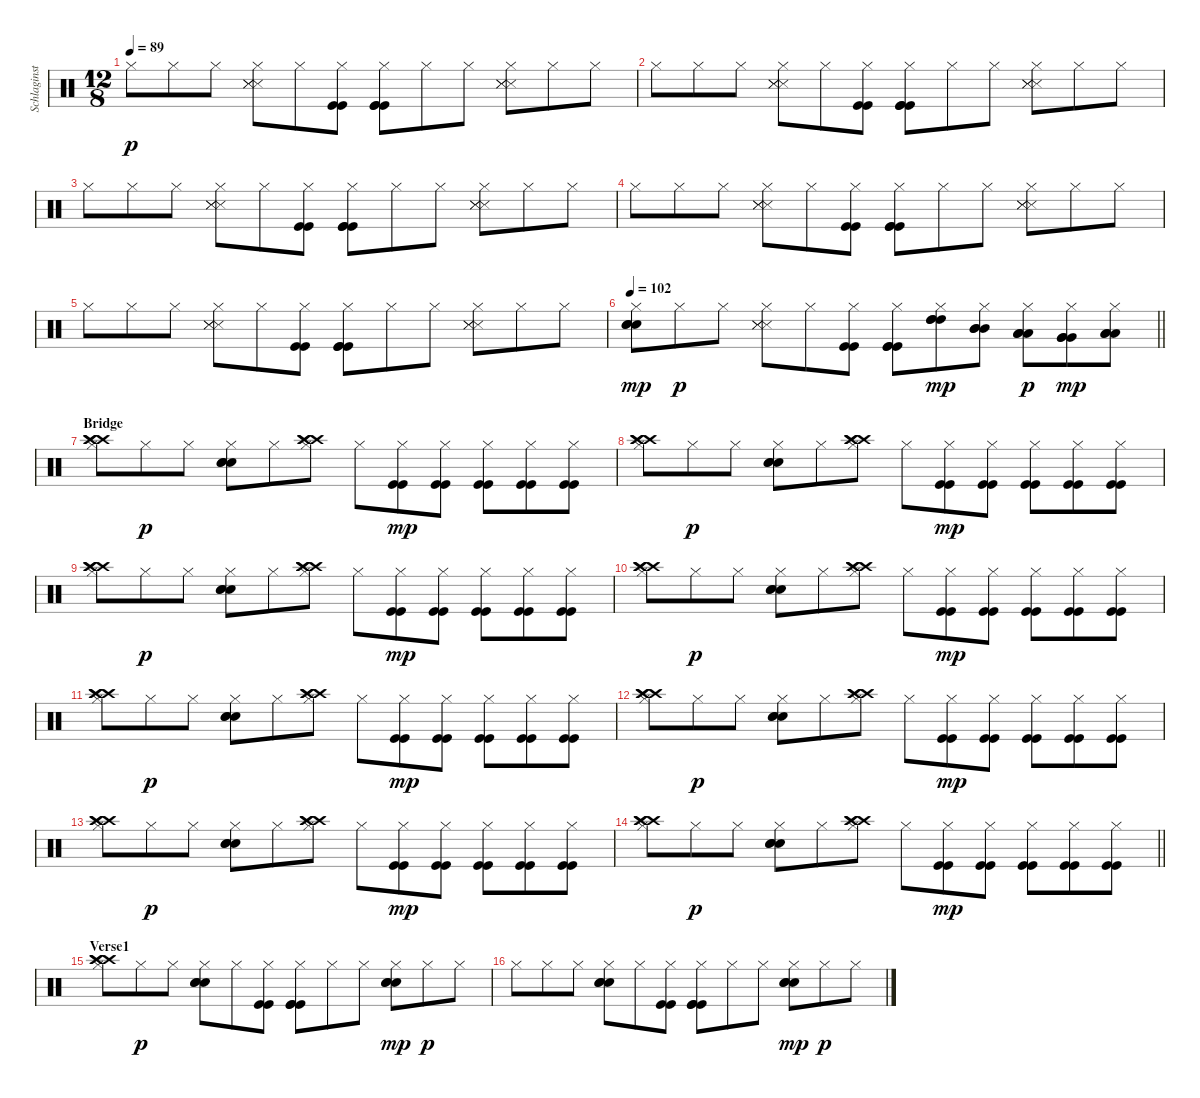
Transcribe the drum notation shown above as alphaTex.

\track ("Schlaginstrumente - Auswahl" "Schlaginst") {instrument percussion}
\staff {score}
\articulation defaults
\ts (12 8)
\tempo 89
\clef neutral
\ks c "Hi-Hat (closed)".8{dy p} "Hi-Hat (closed)".8 "Hi-Hat (closed)".8
("Hi-Hat (closed)" "Snare (side stick) 3" "Snare (side stick) 3" "Snare (side stick) 3").8 "Hi-Hat (closed)".8 ("Hi-Hat (closed)" "Kick (hit)" "Kick (hit)").8 ("Hi-Hat (closed)" "Kick (hit)" "Kick (hit)" "Kick (hit)").8 "Hi-Hat (closed)".8 "Hi-Hat (closed)".8 ("Hi-Hat (closed)" "Snare (side stick) 3" "Snare (side stick) 3" "Snare (side stick) 3").8 "Hi-Hat (closed)".8 "Hi-Hat (closed)".8 |
"Hi-Hat (closed)".8 "Hi-Hat (closed)".8 "Hi-Hat (closed)".8 ("Hi-Hat (closed)" "Snare (side stick) 3" "Snare (side stick) 3" "Snare (side stick) 3").8 "Hi-Hat (closed)".8 ("Hi-Hat (closed)" "Kick (hit)" "Kick (hit)").8 ("Hi-Hat (closed)" "Kick (hit)" "Kick (hit)" "Kick (hit)").8 "Hi-Hat (closed)".8 "Hi-Hat (closed)".8 ("Hi-Hat (closed)" "Snare (side stick) 3" "Snare (side stick) 3" "Snare (side stick) 3").8 "Hi-Hat (closed)".8 "Hi-Hat (closed)".8 |
"Hi-Hat (closed)".8 "Hi-Hat (closed)".8 "Hi-Hat (closed)".8 ("Hi-Hat (closed)" "Snare (side stick) 3" "Snare (side stick) 3" "Snare (side stick) 3").8 "Hi-Hat (closed)".8 ("Hi-Hat (closed)" "Kick (hit)" "Kick (hit)").8 ("Hi-Hat (closed)" "Kick (hit)" "Kick (hit)" "Kick (hit)").8 "Hi-Hat (closed)".8 "Hi-Hat (closed)".8 ("Hi-Hat (closed)" "Snare (side stick) 3" "Snare (side stick) 3" "Snare (side stick) 3").8 "Hi-Hat (closed)".8 "Hi-Hat (closed)".8 |
"Hi-Hat (closed)".8 "Hi-Hat (closed)".8 "Hi-Hat (closed)".8 ("Hi-Hat (closed)" "Snare (side stick) 3" "Snare (side stick) 3" "Snare (side stick) 3").8 "Hi-Hat (closed)".8 ("Hi-Hat (closed)" "Kick (hit)" "Kick (hit)").8 ("Hi-Hat (closed)" "Kick (hit)" "Kick (hit)" "Kick (hit)").8 "Hi-Hat (closed)".8 "Hi-Hat (closed)".8 ("Hi-Hat (closed)" "Snare (side stick) 3" "Snare (side stick) 3" "Snare (side stick) 3").8 "Hi-Hat (closed)".8 "Hi-Hat (closed)".8 |
"Hi-Hat (closed)".8{volume 13} "Hi-Hat (closed)".8 "Hi-Hat (closed)".8 ("Hi-Hat (closed)" "Snare (side stick) 3" "Snare (side stick) 3" "Snare (side stick) 3").8 "Hi-Hat (closed)".8 ("Hi-Hat (closed)" "Kick (hit)" "Kick (hit)").8 ("Hi-Hat (closed)" "Kick (hit)" "Kick (hit)" "Kick (hit)").8 "Hi-Hat (closed)".8 "Hi-Hat (closed)".8 ("Hi-Hat (closed)" "Snare (side stick) 3" "Snare (side stick) 3" "Snare (side stick) 3").8 "Hi-Hat (closed)".8 "Hi-Hat (closed)".8 |
\tempo 102
\barLineRight lightlight
("Hi-Hat (closed)" "Snare (hit) 2" "Snare (hit) 2" "Snare (hit) 2").8{dy mp volume 15} "Hi-Hat (closed)".8{dy p} "Hi-Hat (closed)".8 ("Hi-Hat (closed)" "Snare (side stick) 3" "Snare (side stick) 3" "Snare (side stick) 3").8 "Hi-Hat (closed)".8 ("Hi-Hat (closed)" "Kick (hit)" "Kick (hit)").8 ("Hi-Hat (closed)" "Kick (hit)" "Kick (hit)" "Kick (hit)").8 ("Hi-Hat (closed)" "High Tom (hit)" "High Tom (hit)" "High Tom (hit)").8{dy mp} ("Hi-Hat (closed)" "Mid Tom (hit)" "Mid Tom (hit)" "Mid Tom (hit)").8 ("Hi-Hat (closed)" "Low Tom (hit)" "Low Tom (hit)" "Low Tom (hit)").8{dy p} ("Hi-Hat (closed)" "Very Low Tom (hit)" "Very Low Tom (hit)" "Very Low Tom (hit)").8{dy mp} ("Hi-Hat (closed)" "Low Floor Tom (hit)" "Low Floor Tom (hit)" "Low Floor Tom (hit)").8 |
\section ("" "Bridge")
("Hi-Hat (closed)" "Crash high (hit)" "Crash high (hit)" "Crash high (hit)").8 "Hi-Hat (closed)".8{dy p} "Hi-Hat (closed)".8 ("Hi-Hat (closed)" "Snare (hit) 2" "Snare (hit) 2" "Metronome (bell)").8 "Hi-Hat (closed)".8 ("Hi-Hat (closed)" "Crash high (hit)" "Crash high (hit)" "Crash high (hit)").8 "Hi-Hat (closed)".8 ("Hi-Hat (closed)" "Kick (hit)" "Kick (hit)").8{dy mp} ("Hi-Hat (closed)" "Kick (hit)" "Kick (hit)").8 ("Hi-Hat (closed)" "Kick (hit)" "Kick (hit)").8 ("Hi-Hat (closed)" "Kick (hit)" "Kick (hit)").8 ("Hi-Hat (closed)" "Kick (hit)" "Kick (hit)").8 |
("Hi-Hat (closed)" "Crash high (hit)" "Crash high (hit)" "Crash high (hit)").8 "Hi-Hat (closed)".8{dy p} "Hi-Hat (closed)".8 ("Hi-Hat (closed)" "Snare (hit) 2" "Snare (hit) 2" "Metronome (bell)").8 "Hi-Hat (closed)".8 ("Hi-Hat (closed)" "Crash high (hit)" "Crash high (hit)" "Crash high (hit)").8 "Hi-Hat (closed)".8 ("Hi-Hat (closed)" "Kick (hit)" "Kick (hit)").8{dy mp} ("Hi-Hat (closed)" "Kick (hit)" "Kick (hit)").8 ("Hi-Hat (closed)" "Kick (hit)" "Kick (hit)").8 ("Hi-Hat (closed)" "Kick (hit)" "Kick (hit)").8 ("Hi-Hat (closed)" "Kick (hit)" "Kick (hit)").8 |
("Hi-Hat (closed)" "Crash high (hit)" "Crash high (hit)" "Crash high (hit)").8 "Hi-Hat (closed)".8{dy p} "Hi-Hat (closed)".8 ("Hi-Hat (closed)" "Snare (hit) 2" "Snare (hit) 2" "Metronome (bell)").8 "Hi-Hat (closed)".8 ("Hi-Hat (closed)" "Crash high (hit)" "Crash high (hit)" "Crash high (hit)").8 "Hi-Hat (closed)".8 ("Hi-Hat (closed)" "Kick (hit)" "Kick (hit)").8{dy mp} ("Hi-Hat (closed)" "Kick (hit)" "Kick (hit)").8 ("Hi-Hat (closed)" "Kick (hit)" "Kick (hit)").8 ("Hi-Hat (closed)" "Kick (hit)" "Kick (hit)").8 ("Hi-Hat (closed)" "Kick (hit)" "Kick (hit)").8 |
("Hi-Hat (closed)" "Crash high (hit)" "Crash high (hit)" "Crash high (hit)").8 "Hi-Hat (closed)".8{dy p} "Hi-Hat (closed)".8 ("Hi-Hat (closed)" "Snare (hit) 2" "Snare (hit) 2" "Metronome (bell)").8 "Hi-Hat (closed)".8 ("Hi-Hat (closed)" "Crash high (hit)" "Crash high (hit)" "Crash high (hit)").8 "Hi-Hat (closed)".8 ("Hi-Hat (closed)" "Kick (hit)" "Kick (hit)").8{dy mp} ("Hi-Hat (closed)" "Kick (hit)" "Kick (hit)").8 ("Hi-Hat (closed)" "Kick (hit)" "Kick (hit)").8 ("Hi-Hat (closed)" "Kick (hit)" "Kick (hit)").8 ("Hi-Hat (closed)" "Kick (hit)" "Kick (hit)").8 |
("Hi-Hat (closed)" "Crash high (hit)" "Crash high (hit)" "Crash high (hit)").8 "Hi-Hat (closed)".8{dy p} "Hi-Hat (closed)".8 ("Hi-Hat (closed)" "Snare (hit) 2" "Snare (hit) 2" "Metronome (bell)").8 "Hi-Hat (closed)".8 ("Hi-Hat (closed)" "Crash high (hit)" "Crash high (hit)" "Crash high (hit)").8 "Hi-Hat (closed)".8 ("Hi-Hat (closed)" "Kick (hit)" "Kick (hit)").8{dy mp} ("Hi-Hat (closed)" "Kick (hit)" "Kick (hit)").8 ("Hi-Hat (closed)" "Kick (hit)" "Kick (hit)").8 ("Hi-Hat (closed)" "Kick (hit)" "Kick (hit)").8 ("Hi-Hat (closed)" "Kick (hit)" "Kick (hit)").8 |
("Hi-Hat (closed)" "Crash high (hit)" "Crash high (hit)" "Crash high (hit)").8 "Hi-Hat (closed)".8{dy p} "Hi-Hat (closed)".8 ("Hi-Hat (closed)" "Snare (hit) 2" "Snare (hit) 2" "Metronome (bell)").8 "Hi-Hat (closed)".8 ("Hi-Hat (closed)" "Crash high (hit)" "Crash high (hit)" "Crash high (hit)").8 "Hi-Hat (closed)".8 ("Hi-Hat (closed)" "Kick (hit)" "Kick (hit)").8{dy mp} ("Hi-Hat (closed)" "Kick (hit)" "Kick (hit)").8 ("Hi-Hat (closed)" "Kick (hit)" "Kick (hit)").8 ("Hi-Hat (closed)" "Kick (hit)" "Kick (hit)").8 ("Hi-Hat (closed)" "Kick (hit)" "Kick (hit)").8 |
("Hi-Hat (closed)" "Crash high (hit)" "Crash high (hit)" "Crash high (hit)").8 "Hi-Hat (closed)".8{dy p} "Hi-Hat (closed)".8 ("Hi-Hat (closed)" "Snare (hit) 2" "Snare (hit) 2" "Metronome (bell)").8 "Hi-Hat (closed)".8 ("Hi-Hat (closed)" "Crash high (hit)" "Crash high (hit)" "Crash high (hit)").8 "Hi-Hat (closed)".8 ("Hi-Hat (closed)" "Kick (hit)" "Kick (hit)").8{dy mp} ("Hi-Hat (closed)" "Kick (hit)" "Kick (hit)").8 ("Hi-Hat (closed)" "Kick (hit)" "Kick (hit)").8 ("Hi-Hat (closed)" "Kick (hit)" "Kick (hit)").8 ("Hi-Hat (closed)" "Kick (hit)" "Kick (hit)").8 |
\barLineRight lightlight
("Hi-Hat (closed)" "Crash high (hit)" "Crash high (hit)" "Crash high (hit)").8 "Hi-Hat (closed)".8{dy p} "Hi-Hat (closed)".8 ("Hi-Hat (closed)" "Snare (hit) 2" "Snare (hit) 2" "Metronome (bell)").8 "Hi-Hat (closed)".8 ("Hi-Hat (closed)" "Crash high (hit)" "Crash high (hit)" "Crash high (hit)").8 "Hi-Hat (closed)".8 ("Hi-Hat (closed)" "Kick (hit)" "Kick (hit)").8{dy mp} ("Hi-Hat (closed)" "Kick (hit)" "Kick (hit)").8 ("Hi-Hat (closed)" "Kick (hit)" "Kick (hit)").8 ("Hi-Hat (closed)" "Kick (hit)" "Kick (hit)").8 ("Hi-Hat (closed)" "Kick (hit)" "Kick (hit)").8 |
\section ("" "Verse1")
("Hi-Hat (closed)" "Crash high (hit)" "Crash high (hit)" "Crash high (hit)").8 "Hi-Hat (closed)".8{dy p} "Hi-Hat (closed)".8 ("Hi-Hat (closed)" "Snare (hit) 2" "Snare (hit) 2" "Metronome (bell)").8 "Hi-Hat (closed)".8 ("Hi-Hat (closed)" "Kick (hit)" "Kick (hit)").8 ("Hi-Hat (closed)" "Kick (hit)" "Kick (hit)" "Kick (hit)").8 "Hi-Hat (closed)".8 "Hi-Hat (closed)".8 ("Hi-Hat (closed)" "Snare (hit) 2" "Snare (hit) 2" "Snare (hit) 2").8{dy mp} "Hi-Hat (closed)".8{dy p} "Hi-Hat (closed)".8 |
"Hi-Hat (closed)".8 "Hi-Hat (closed)".8 "Hi-Hat (closed)".8 ("Hi-Hat (closed)" "Snare (hit) 2" "Snare (hit) 2" "Metronome (bell)").8 "Hi-Hat (closed)".8 ("Hi-Hat (closed)" "Kick (hit)" "Kick (hit)").8 ("Hi-Hat (closed)" "Kick (hit)" "Kick (hit)" "Kick (hit)").8 "Hi-Hat (closed)".8 "Hi-Hat (closed)".8 ("Hi-Hat (closed)" "Snare (hit) 2" "Snare (hit) 2" "Snare (hit) 2").8{dy mp} "Hi-Hat (closed)".8{dy p} "Hi-Hat (closed)".8
